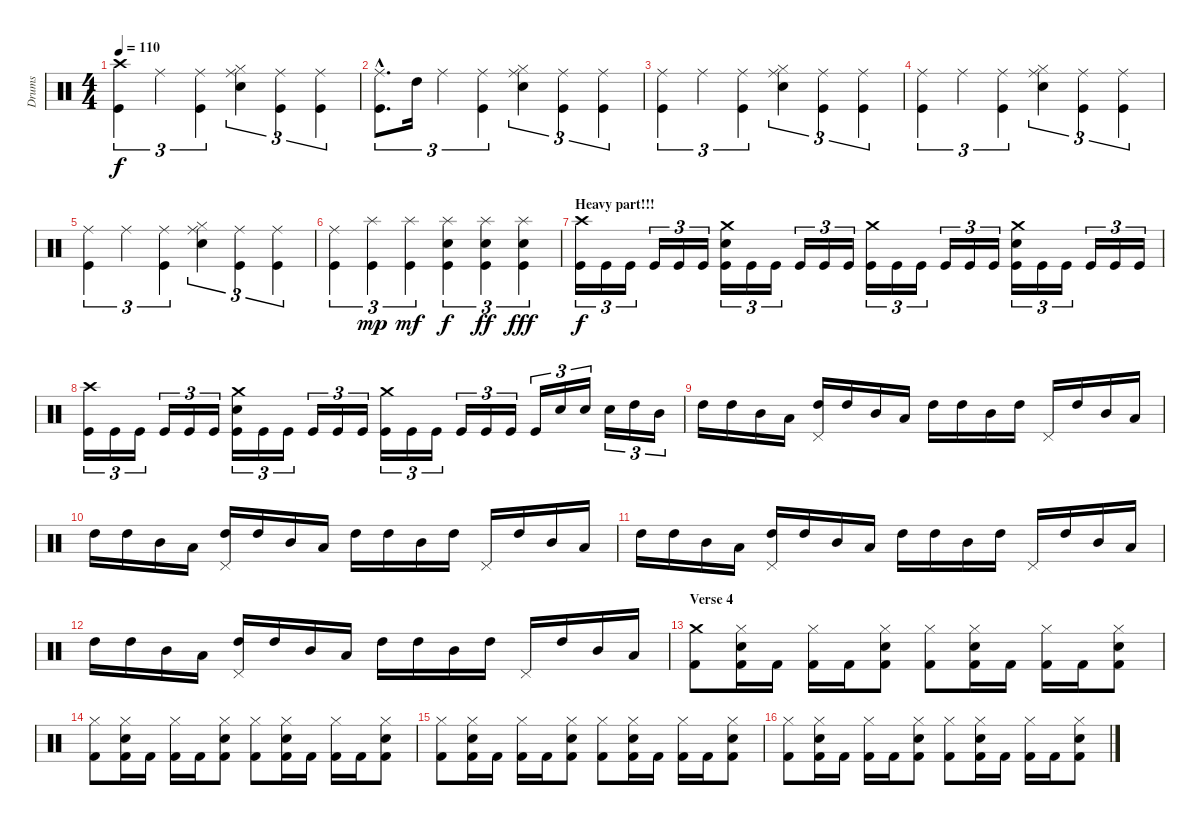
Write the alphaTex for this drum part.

\track ("Drums" "Drums") {instrument percussion}
\staff {score}
\articulation defaults
\ts (4 4)
\tempo 110
\clef neutral
\ks c
("Crash high (hit)" "Kick (hit)").4{tu (3 2) dy f} "Ride (middle)".4{tu (3 2)} ("Ride (middle)" "Kick (hit)").4{tu (3 2)} ("Ride (middle)" "Hi-Hat (closed)" "Electric Snare (hit)").4{tu (3 2)} ("Ride (middle)" "Kick (hit)").4{tu (3 2)} ("Ride (middle)" "Kick (hit)").4{tu (3 2)} |
("Ride (middle)"{hac} "Kick (hit)"{hac}).8{d tu (3 2)} "High Tom (hit)".16{tu (3 2)} "Ride (middle)".4{tu (3 2)} ("Ride (middle)" "Kick (hit)").4{tu (3 2)} ("Ride (middle)" "Hi-Hat (closed)" "Electric Snare (hit)").4{tu (3 2)} ("Ride (middle)" "Kick (hit)").4{tu (3 2)} ("Ride (middle)" "Kick (hit)").4{tu (3 2)} |
("Ride (middle)" "Kick (hit)").4{tu (3 2)} "Ride (middle)".4{tu (3 2)} ("Ride (middle)" "Kick (hit)").4{tu (3 2)} ("Ride (middle)" "Hi-Hat (closed)" "Electric Snare (hit)").4{tu (3 2)} ("Ride (middle)" "Kick (hit)").4{tu (3 2)} ("Ride (middle)" "Kick (hit)").4{tu (3 2)} |
("Ride (middle)" "Kick (hit)").4{tu (3 2)} "Ride (middle)".4{tu (3 2)} ("Ride (middle)" "Kick (hit)").4{tu (3 2)} ("Ride (middle)" "Hi-Hat (closed)" "Electric Snare (hit)").4{tu (3 2)} ("Ride (middle)" "Kick (hit)").4{tu (3 2)} ("Ride (middle)" "Kick (hit)").4{tu (3 2)} |
("Ride (middle)" "Kick (hit)").4{tu (3 2)} "Ride (middle)".4{tu (3 2)} ("Ride (middle)" "Kick (hit)").4{tu (3 2)} ("Ride (middle)" "Hi-Hat (closed)" "Electric Snare (hit)").4{tu (3 2)} ("Ride (middle)" "Kick (hit)").4{tu (3 2)} ("Ride (middle)" "Kick (hit)").4{tu (3 2)} |
("Ride (middle)" "Kick (hit)").4{tu (3 2)} ("Splash (hit)" "Kick (hit)").4{tu (3 2) dy mp} ("Splash (hit)" "Kick (hit)").4{tu (3 2) dy mf} ("Splash (hit)" "Electric Snare (hit)" "Kick (hit)").4{tu (3 2) dy f} ("Splash (hit)" "Electric Snare (hit)" "Kick (hit)").4{tu (3 2) dy ff} ("Splash (hit)" "Electric Snare (hit)" "Kick (hit)").4{tu (3 2) dy fff} |
\section ("" "Heavy part!!!")
("Crash high (hit)" "Kick (hit)").16{tu (3 2) dy f} "Kick (hit)".16{tu (3 2)} "Kick (hit)".16{tu (3 2)} "Kick (hit)".16{tu (3 2)} "Kick (hit)".16{tu (3 2)} "Kick (hit)".16{tu (3 2)} ("Crash medium (hit)" "Electric Snare (hit)" "Kick (hit)").16{tu (3 2)} "Kick (hit)".16{tu (3 2)} "Kick (hit)".16{tu (3 2)} "Kick (hit)".16{tu (3 2)} "Kick (hit)".16{tu (3 2)} "Kick (hit)".16{tu (3 2)} ("Crash medium (hit)" "Kick (hit)").16{tu (3 2)} "Kick (hit)".16{tu (3 2)} "Kick (hit)".16{tu (3 2)} "Kick (hit)".16{tu (3 2)} "Kick (hit)".16{tu (3 2)} "Kick (hit)".16{tu (3 2)} ("Crash medium (hit)" "Electric Snare (hit)" "Kick (hit)").16{tu (3 2)} "Kick (hit)".16{tu (3 2)} "Kick (hit)".16{tu (3 2)} "Kick (hit)".16{tu (3 2)} "Kick (hit)".16{tu (3 2)} "Kick (hit)".16{tu (3 2)} |
("Crash high (hit)" "Kick (hit)").16{tu (3 2)} "Kick (hit)".16{tu (3 2)} "Kick (hit)".16{tu (3 2)} "Kick (hit)".16{tu (3 2)} "Kick (hit)".16{tu (3 2)} "Kick (hit)".16{tu (3 2)} ("Crash medium (hit)" "Electric Snare (hit)" "Kick (hit)").16{tu (3 2)} "Kick (hit)".16{tu (3 2)} "Kick (hit)".16{tu (3 2)} "Kick (hit)".16{tu (3 2)} "Kick (hit)".16{tu (3 2)} "Kick (hit)".16{tu (3 2)} ("Crash medium (hit)" "Kick (hit)").16{tu (3 2)} "Kick (hit)".16{tu (3 2)} "Kick (hit)".16{tu (3 2)} "Kick (hit)".16{tu (3 2)} "Kick (hit)".16{tu (3 2)} "Kick (hit)".16{tu (3 2)} "Kick (hit)".16{tu (3 2)} "Electric Snare (hit)".16{tu (3 2)} "Electric Snare (hit)".16{tu (3 2)} "Electric Snare (hit)".16{tu (3 2)} "High Tom (hit)".16{tu (3 2)} "Mid Tom (hit)".16{tu (3 2)} |
"High Tom (hit)".16 "High Tom (hit)".16 "Mid Tom (hit)".16 "Low Floor Tom (hit)".16 ("Pedal Hi-Hat (hit)" "High Tom (hit)").16 "High Tom (hit)".16 "Mid Tom (hit)".16 "Low Floor Tom (hit)".16 "High Tom (hit)".16 "High Tom (hit)".16 "Mid Tom (hit)".16 "High Tom (hit)".16 "Pedal Hi-Hat (hit)".16 "High Tom (hit)".16 "Mid Tom (hit)".16 "Low Floor Tom (hit)".16 |
"High Tom (hit)".16 "High Tom (hit)".16 "Mid Tom (hit)".16 "Low Floor Tom (hit)".16 ("Pedal Hi-Hat (hit)" "High Tom (hit)").16 "High Tom (hit)".16 "Mid Tom (hit)".16 "Low Floor Tom (hit)".16 "High Tom (hit)".16 "High Tom (hit)".16 "Mid Tom (hit)".16 "High Tom (hit)".16 "Pedal Hi-Hat (hit)".16 "High Tom (hit)".16 "Mid Tom (hit)".16 "Low Floor Tom (hit)".16 |
"High Tom (hit)".16 "High Tom (hit)".16 "Mid Tom (hit)".16 "Low Floor Tom (hit)".16 ("Pedal Hi-Hat (hit)" "High Tom (hit)").16 "High Tom (hit)".16 "Mid Tom (hit)".16 "Low Floor Tom (hit)".16 "High Tom (hit)".16 "High Tom (hit)".16 "Mid Tom (hit)".16 "High Tom (hit)".16 "Pedal Hi-Hat (hit)".16 "High Tom (hit)".16 "Mid Tom (hit)".16 "Low Floor Tom (hit)".16 |
"High Tom (hit)".16 "High Tom (hit)".16 "Mid Tom (hit)".16 "Low Floor Tom (hit)".16 ("Pedal Hi-Hat (hit)" "High Tom (hit)").16 "High Tom (hit)".16 "Mid Tom (hit)".16 "Low Floor Tom (hit)".16 "High Tom (hit)".16 "High Tom (hit)".16 "Mid Tom (hit)".16 "High Tom (hit)".16 "Pedal Hi-Hat (hit)".16 "High Tom (hit)".16 "Mid Tom (hit)".16 "Low Floor Tom (hit)".16 |
\section ("" "Verse 4")
("Crash medium (hit)" "Kick (hit) 2").8 ("Hi-Hat (closed)" "Electric Snare (hit)" "Kick (hit) 2").16 "Kick (hit) 2".16 ("Hi-Hat (closed)" "Kick (hit) 2").16 "Kick (hit) 2".16 ("Hi-Hat (closed)" "Electric Snare (hit)" "Kick (hit) 2").8 ("Hi-Hat (closed)" "Kick (hit) 2").8 ("Hi-Hat (closed)" "Electric Snare (hit)" "Kick (hit) 2").16 "Kick (hit) 2".16 ("Hi-Hat (closed)" "Kick (hit) 2").16 "Kick (hit) 2".16 ("Hi-Hat (closed)" "Electric Snare (hit)" "Kick (hit) 2").8 |
("Hi-Hat (closed)" "Kick (hit) 2").8 ("Hi-Hat (closed)" "Electric Snare (hit)" "Kick (hit) 2").16 "Kick (hit) 2".16 ("Hi-Hat (closed)" "Kick (hit) 2").16 "Kick (hit) 2".16 ("Hi-Hat (closed)" "Electric Snare (hit)" "Kick (hit) 2").8 ("Hi-Hat (closed)" "Kick (hit) 2").8 ("Hi-Hat (closed)" "Electric Snare (hit)" "Kick (hit) 2").16 "Kick (hit) 2".16 ("Hi-Hat (closed)" "Kick (hit) 2").16 "Kick (hit) 2".16 ("Hi-Hat (closed)" "Electric Snare (hit)" "Kick (hit) 2").8 |
("Hi-Hat (closed)" "Kick (hit) 2").8 ("Hi-Hat (closed)" "Electric Snare (hit)" "Kick (hit) 2").16 "Kick (hit) 2".16 ("Hi-Hat (closed)" "Kick (hit) 2").16 "Kick (hit) 2".16 ("Hi-Hat (closed)" "Electric Snare (hit)" "Kick (hit) 2").8 ("Hi-Hat (closed)" "Kick (hit) 2").8 ("Hi-Hat (closed)" "Electric Snare (hit)" "Kick (hit) 2").16 "Kick (hit) 2".16 ("Hi-Hat (closed)" "Kick (hit) 2").16 "Kick (hit) 2".16 ("Hi-Hat (closed)" "Electric Snare (hit)" "Kick (hit) 2").8 |
("Hi-Hat (closed)" "Kick (hit) 2").8 ("Hi-Hat (closed)" "Electric Snare (hit)" "Kick (hit) 2").16 "Kick (hit) 2".16 ("Hi-Hat (closed)" "Kick (hit) 2").16 "Kick (hit) 2".16 ("Hi-Hat (closed)" "Electric Snare (hit)" "Kick (hit) 2").8 ("Hi-Hat (closed)" "Kick (hit) 2").8 ("Hi-Hat (closed)" "Electric Snare (hit)" "Kick (hit) 2").16 "Kick (hit) 2".16 ("Hi-Hat (closed)" "Kick (hit) 2").16 "Kick (hit) 2".16 ("Hi-Hat (closed)" "Electric Snare (hit)" "Kick (hit) 2").8
